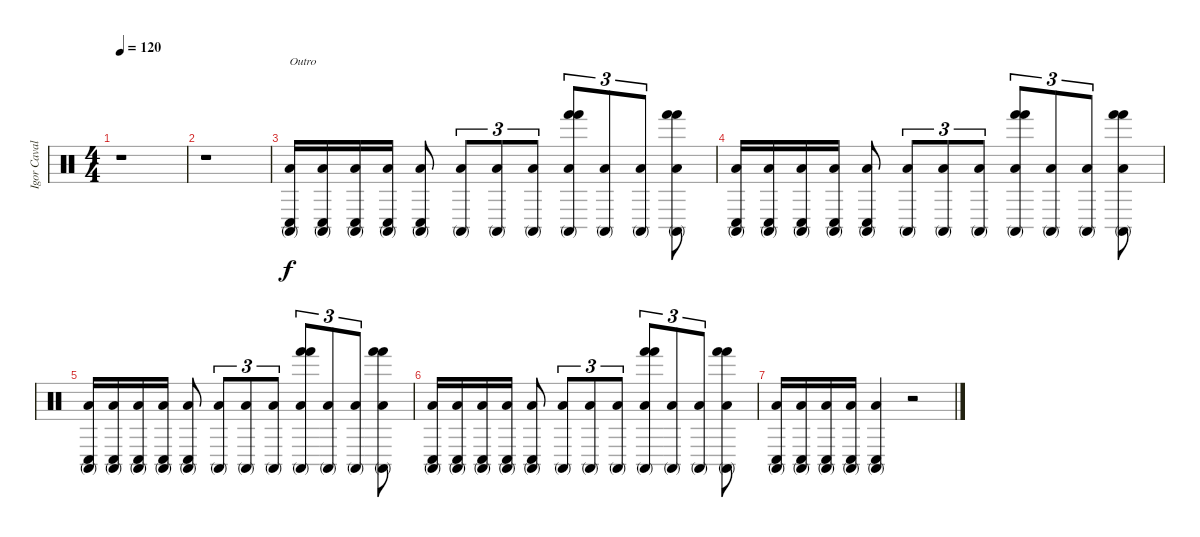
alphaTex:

\track ("Igor Cavalera" "Igor Caval") {instrument percussion}
\staff {score}
\articulation defaults
\ts (4 4)
\tempo 120
\clef neutral
\ks c
r.1{dy f} |
r.1 |
("Low Floor Tom (hit)" "Conga high (mute)" "Conga low (hit)").16{txt "Outro" volume 16} ("Low Floor Tom (hit)" "Conga high (mute)" "Conga low (hit)").16 ("Low Floor Tom (hit)" "Conga high (mute)" "Conga low (hit)").16 ("Low Floor Tom (hit)" "Conga high (mute)" "Conga low (hit)").16 ("Low Floor Tom (hit)" "Conga high (mute)" "Conga low (hit)").8 ("Low Floor Tom (hit)" "Conga high (mute)").8{tu (3 2)} ("Low Floor Tom (hit)" "Conga high (mute)").8{tu (3 2)} ("Low Floor Tom (hit)" "Conga high (mute)").8{tu (3 2)} ("Hand (hit)" "Low Floor Tom (hit)" "Conga high (mute)" "Hand (hit)").8{tu (3 2)} ("Low Floor Tom (hit)" "Conga high (mute)").8{tu (3 2)} ("Low Floor Tom (hit)" "Conga high (mute)").8{tu (3 2)} ("Hand (hit)" "Low Floor Tom (hit)" "Conga high (mute)" "Hand (hit)").8 |
("Low Floor Tom (hit)" "Conga high (mute)" "Conga low (hit)").16{volume 16} ("Low Floor Tom (hit)" "Conga high (mute)" "Conga low (hit)").16 ("Low Floor Tom (hit)" "Conga high (mute)" "Conga low (hit)").16 ("Low Floor Tom (hit)" "Conga high (mute)" "Conga low (hit)").16 ("Low Floor Tom (hit)" "Conga high (mute)" "Conga low (hit)").8 ("Low Floor Tom (hit)" "Conga high (mute)").8{tu (3 2)} ("Low Floor Tom (hit)" "Conga high (mute)").8{tu (3 2)} ("Low Floor Tom (hit)" "Conga high (mute)").8{tu (3 2)} ("Hand (hit)" "Low Floor Tom (hit)" "Conga high (mute)" "Hand (hit)").8{tu (3 2)} ("Low Floor Tom (hit)" "Conga high (mute)").8{tu (3 2)} ("Low Floor Tom (hit)" "Conga high (mute)").8{tu (3 2)} ("Hand (hit)" "Low Floor Tom (hit)" "Conga high (mute)" "Hand (hit)").8 |
("Low Floor Tom (hit)" "Conga high (mute)" "Conga low (hit)").16{volume 16} ("Low Floor Tom (hit)" "Conga high (mute)" "Conga low (hit)").16 ("Low Floor Tom (hit)" "Conga high (mute)" "Conga low (hit)").16 ("Low Floor Tom (hit)" "Conga high (mute)" "Conga low (hit)").16 ("Low Floor Tom (hit)" "Conga high (mute)" "Conga low (hit)").8 ("Low Floor Tom (hit)" "Conga high (mute)").8{tu (3 2)} ("Low Floor Tom (hit)" "Conga high (mute)").8{tu (3 2)} ("Low Floor Tom (hit)" "Conga high (mute)").8{tu (3 2)} ("Hand (hit)" "Low Floor Tom (hit)" "Conga high (mute)" "Hand (hit)").8{tu (3 2)} ("Low Floor Tom (hit)" "Conga high (mute)").8{tu (3 2)} ("Low Floor Tom (hit)" "Conga high (mute)").8{tu (3 2)} ("Hand (hit)" "Low Floor Tom (hit)" "Conga high (mute)" "Hand (hit)").8 |
("Low Floor Tom (hit)" "Conga high (mute)" "Conga low (hit)").16{volume 16} ("Low Floor Tom (hit)" "Conga high (mute)" "Conga low (hit)").16 ("Low Floor Tom (hit)" "Conga high (mute)" "Conga low (hit)").16 ("Low Floor Tom (hit)" "Conga high (mute)" "Conga low (hit)").16 ("Low Floor Tom (hit)" "Conga high (mute)" "Conga low (hit)").8 ("Low Floor Tom (hit)" "Conga high (mute)").8{tu (3 2)} ("Low Floor Tom (hit)" "Conga high (mute)").8{tu (3 2)} ("Low Floor Tom (hit)" "Conga high (mute)").8{tu (3 2)} ("Hand (hit)" "Low Floor Tom (hit)" "Conga high (mute)" "Hand (hit)").8{tu (3 2)} ("Low Floor Tom (hit)" "Conga high (mute)").8{tu (3 2)} ("Low Floor Tom (hit)" "Conga high (mute)").8{tu (3 2)} ("Hand (hit)" "Low Floor Tom (hit)" "Conga high (mute)" "Hand (hit)").8 |
("Low Floor Tom (hit)" "Conga high (mute)" "Conga low (hit)").16{volume 16} ("Low Floor Tom (hit)" "Conga high (mute)" "Conga low (hit)").16 ("Low Floor Tom (hit)" "Conga high (mute)" "Conga low (hit)").16 ("Low Floor Tom (hit)" "Conga high (mute)" "Conga low (hit)").16 ("Low Floor Tom (hit)" "Conga high (mute)" "Conga low (hit)").4 r.2
